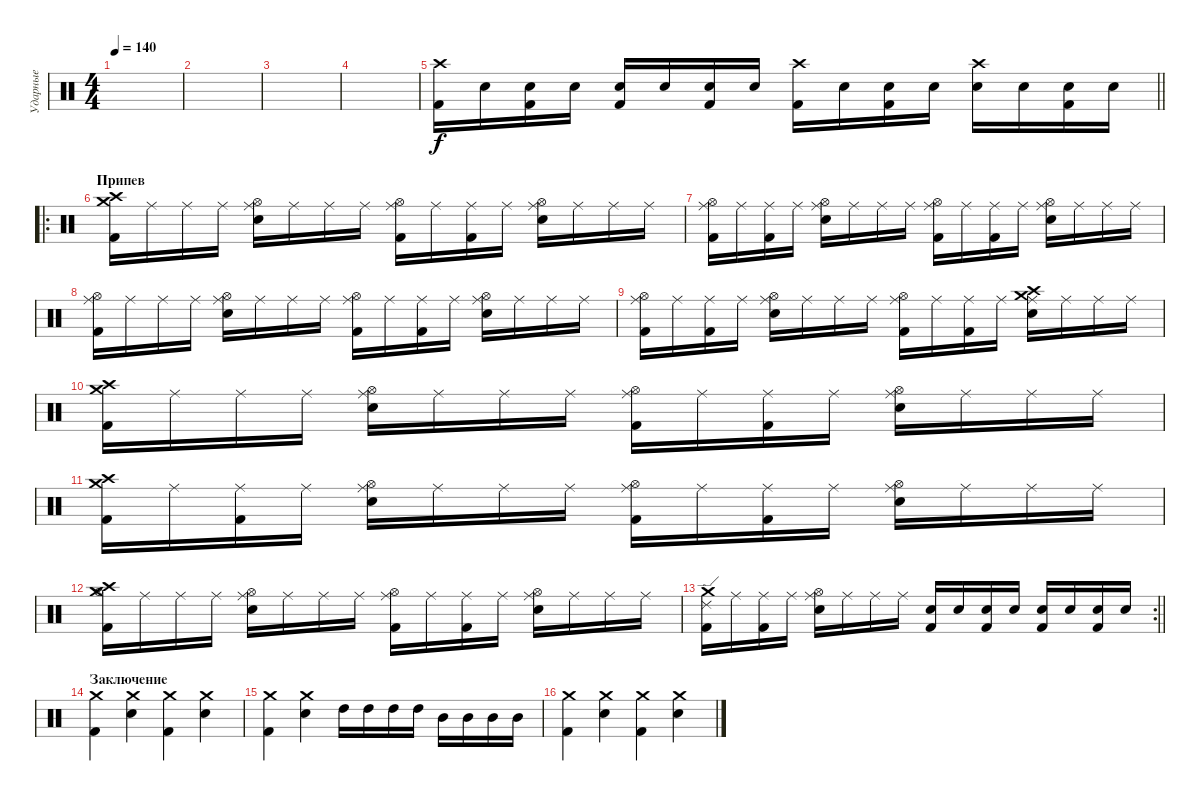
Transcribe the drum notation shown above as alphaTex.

\track ("Ударные" "Ударные") {instrument percussion}
\staff {score}
\articulation defaults
\ts (4 4)
\tempo 140
\clef neutral
\ks c
|
|
|
|
\barLineRight lightlight
("Crash high (hit)" "Kick (hit) 2").16 "Snare (hit) 2".16 ("Kick (hit) 2" "Snare (hit) 2").16 "Snare (hit) 2".16 ("Kick (hit) 2" "Snare (hit) 2").16 "Snare (hit) 2".16 ("Kick (hit) 2" "Snare (hit) 2").16 "Snare (hit) 2".16 ("Crash high (hit)" "Kick (hit) 2").16 "Snare (hit) 2".16 ("Kick (hit) 2" "Snare (hit) 2").16 "Snare (hit) 2".16 ("Crash high (hit)" "Snare (hit) 2").16 "Snare (hit) 2".16 ("Kick (hit) 2" "Snare (hit) 2").16 "Snare (hit) 2".16 |
\ro
\section ("" "Припев")
("Crash medium (hit)" "Crash high (hit)" "Kick (hit) 2").16 "Ride (middle)".16 "Ride (middle)".16 "Ride (middle)".16 ("Ride (middle)" "Hi-Hat (open)" "Snare (hit) 2").16 "Ride (middle)".16 "Ride (middle)".16 "Ride (middle)".16 ("Ride (middle)" "Hi-Hat (open)" "Kick (hit) 2").16 "Ride (middle)".16 ("Ride (middle)" "Kick (hit) 2").16 "Ride (middle)".16 ("Ride (middle)" "Hi-Hat (open)" "Snare (hit) 2").16 "Ride (middle)".16 "Ride (middle)".16 "Ride (middle)".16 |
("Ride (middle)" "Hi-Hat (open)" "Kick (hit) 2").16 "Ride (middle)".16 ("Ride (middle)" "Kick (hit) 2").16 "Ride (middle)".16 ("Ride (middle)" "Hi-Hat (open)" "Snare (hit) 2").16 "Ride (middle)".16 "Ride (middle)".16 "Ride (middle)".16 ("Ride (middle)" "Hi-Hat (open)" "Kick (hit) 2").16 "Ride (middle)".16 ("Ride (middle)" "Kick (hit) 2").16 "Ride (middle)".16 ("Ride (middle)" "Hi-Hat (open)" "Snare (hit) 2").16 "Ride (middle)".16 "Ride (middle)".16 "Ride (middle)".16 |
("Ride (middle)" "Hi-Hat (open)" "Kick (hit) 2").16 "Ride (middle)".16 "Ride (middle)".16 "Ride (middle)".16 ("Ride (middle)" "Hi-Hat (open)" "Snare (hit) 2").16 "Ride (middle)".16 "Ride (middle)".16 "Ride (middle)".16 ("Ride (middle)" "Hi-Hat (open)" "Kick (hit) 2").16 "Ride (middle)".16 ("Ride (middle)" "Kick (hit) 2").16 "Ride (middle)".16 ("Ride (middle)" "Hi-Hat (open)" "Snare (hit) 2").16 "Ride (middle)".16 "Ride (middle)".16 "Ride (middle)".16 |
("Ride (middle)" "Hi-Hat (open)" "Kick (hit) 2").16 "Ride (middle)".16 ("Ride (middle)" "Kick (hit) 2").16 "Ride (middle)".16 ("Ride (middle)" "Hi-Hat (open)" "Snare (hit) 2").16 "Ride (middle)".16 "Ride (middle)".16 "Ride (middle)".16 ("Ride (middle)" "Hi-Hat (open)" "Kick (hit) 2").16 "Ride (middle)".16 ("Ride (middle)" "Kick (hit) 2").16 "Ride (middle)".16 ("Crash medium (hit)" "Crash high (hit)" "Ride (middle)" "Snare (hit) 2").16 "Ride (middle)".16 "Ride (middle)".16 "Ride (middle)".16 |
("Crash medium (hit)" "Crash high (hit)" "Kick (hit) 2").16 "Ride (middle)".16 "Ride (middle)".16 "Ride (middle)".16 ("Ride (middle)" "Hi-Hat (open)" "Snare (hit) 2").16 "Ride (middle)".16 "Ride (middle)".16 "Ride (middle)".16 ("Ride (middle)" "Hi-Hat (open)" "Kick (hit) 2").16 "Ride (middle)".16 ("Ride (middle)" "Kick (hit) 2").16 "Ride (middle)".16 ("Ride (middle)" "Hi-Hat (open)" "Snare (hit) 2").16 "Ride (middle)".16 "Ride (middle)".16 "Ride (middle)".16 |
("Crash medium (hit)" "Crash high (hit)" "Kick (hit) 2").16 "Ride (middle)".16 ("Ride (middle)" "Kick (hit) 2").16 "Ride (middle)".16 ("Ride (middle)" "Hi-Hat (open)" "Snare (hit) 2").16 "Ride (middle)".16 "Ride (middle)".16 "Ride (middle)".16 ("Ride (middle)" "Hi-Hat (open)" "Kick (hit) 2").16 "Ride (middle)".16 ("Ride (middle)" "Kick (hit) 2").16 "Ride (middle)".16 ("Ride (middle)" "Hi-Hat (open)" "Snare (hit) 2").16 "Ride (middle)".16 "Ride (middle)".16 "Ride (middle)".16 |
("Crash medium (hit)" "Crash high (hit)" "Hi-Hat (open)" "Kick (hit) 2").16 "Ride (middle)".16 "Ride (middle)".16 "Ride (middle)".16 ("Ride (middle)" "Hi-Hat (open)" "Snare (hit) 2").16 "Ride (middle)".16 "Ride (middle)".16 "Ride (middle)".16 ("Ride (middle)" "Hi-Hat (open)" "Kick (hit) 2").16 "Ride (middle)".16 ("Ride (middle)" "Kick (hit) 2").16 "Ride (middle)".16 ("Ride (middle)" "Hi-Hat (open)" "Snare (hit) 2").16 "Ride (middle)".16 "Ride (middle)".16 "Ride (middle)".16 |
\rc 2
\barLineRight lightlight
("Crash medium (hit)" "Ride (edge) 2" "Kick (hit) 2").16 "Ride (middle)".16 ("Ride (middle)" "Kick (hit) 2").16 "Ride (middle)".16 ("Ride (middle)" "Hi-Hat (open)" "Snare (hit) 2").16 "Ride (middle)".16 "Ride (middle)".16 "Ride (middle)".16 ("Snare (hit) 2" "Kick (hit) 2").16 "Snare (hit) 2".16 ("Snare (hit) 2" "Kick (hit) 2").16 "Snare (hit) 2".16 ("Snare (hit) 2" "Kick (hit) 2").16 "Snare (hit) 2".16 ("Snare (hit) 2" "Kick (hit) 2").16 "Snare (hit) 2".16 |
\section ("" "Заключение")
("Crash medium (hit)" "Kick (hit) 2").4 ("Crash medium (hit)" "Snare (hit) 2").4 ("Crash medium (hit)" "Kick (hit) 2").4 ("Crash medium (hit)" "Snare (hit) 2").4 |
("Crash medium (hit)" "Kick (hit) 2").4 ("Crash medium (hit)" "Snare (hit) 2").4 "High Tom (hit)".16 "High Tom (hit)".16 "High Tom (hit)".16 "High Tom (hit)".16 "Mid Tom (hit)".16 "Mid Tom (hit)".16 "Mid Tom (hit)".16 "Mid Tom (hit)".16 |
("Crash medium (hit)" "Kick (hit) 2").4 ("Crash medium (hit)" "Snare (hit) 2").4 ("Crash medium (hit)" "Kick (hit) 2").4 ("Crash medium (hit)" "Snare (hit) 2").4
